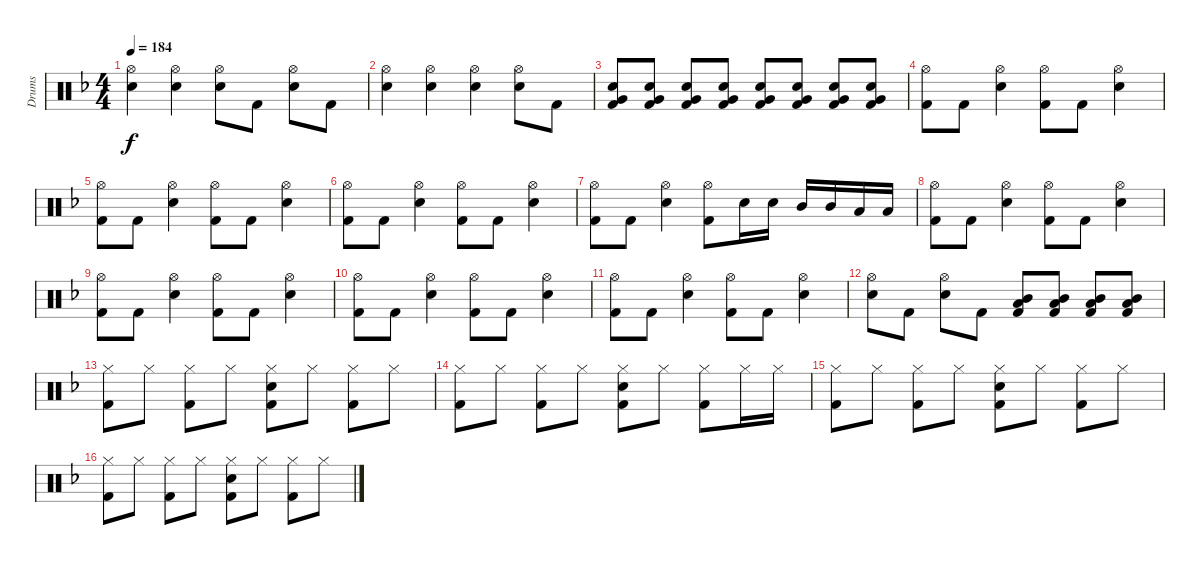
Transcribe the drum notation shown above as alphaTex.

\track ("Drums" "Drums") {instrument percussion}
\staff {score}
\articulation defaults
\ts (4 4)
\tempo 184
\clef neutral
\ks f
("Hi-Hat (open)" "Electric Snare (hit)").4{dy f} ("Hi-Hat (open)" "Electric Snare (hit)").4 ("Hi-Hat (open)" "Electric Snare (hit)").8 "Kick (hit) 2".8 ("Hi-Hat (open)" "Electric Snare (hit)").8 "Kick (hit) 2".8 |
("Hi-Hat (open)" "Electric Snare (hit)").4 ("Hi-Hat (open)" "Electric Snare (hit)").4 ("Hi-Hat (open)" "Electric Snare (hit)").4 ("Hi-Hat (open)" "Electric Snare (hit)").8 "Kick (hit) 2".8 |
("Electric Snare (hit)" "Very Low Tom (hit)" "Kick (hit) 2").8 ("Electric Snare (hit)" "Very Low Tom (hit)" "Kick (hit) 2").8 ("Electric Snare (hit)" "Very Low Tom (hit)" "Kick (hit) 2").8 ("Electric Snare (hit)" "Very Low Tom (hit)" "Kick (hit) 2").8 ("Electric Snare (hit)" "Very Low Tom (hit)" "Kick (hit) 2").8 ("Electric Snare (hit)" "Very Low Tom (hit)" "Kick (hit) 2").8 ("Electric Snare (hit)" "Very Low Tom (hit)" "Kick (hit) 2").8 ("Electric Snare (hit)" "Very Low Tom (hit)" "Kick (hit) 2").8 |
("Hi-Hat (open)" "Kick (hit) 2").8 "Kick (hit) 2".8 ("Hi-Hat (open)" "Electric Snare (hit)").4 ("Hi-Hat (open)" "Kick (hit) 2").8 "Kick (hit) 2".8 ("Hi-Hat (open)" "Electric Snare (hit)").4 |
("Hi-Hat (open)" "Kick (hit) 2").8 "Kick (hit) 2".8 ("Hi-Hat (open)" "Electric Snare (hit)").4 ("Hi-Hat (open)" "Kick (hit) 2").8 "Kick (hit) 2".8 ("Hi-Hat (open)" "Electric Snare (hit)").4 |
("Hi-Hat (open)" "Kick (hit) 2").8 "Kick (hit) 2".8 ("Hi-Hat (open)" "Electric Snare (hit)").4 ("Hi-Hat (open)" "Kick (hit) 2").8 "Kick (hit) 2".8 ("Hi-Hat (open)" "Electric Snare (hit)").4 |
("Hi-Hat (open)" "Kick (hit) 2").8 "Kick (hit) 2".8 ("Hi-Hat (open)" "Electric Snare (hit)").4 ("Hi-Hat (open)" "Kick (hit) 2").8 "Electric Snare (hit)".16 "Electric Snare (hit)".16 "Mid Tom (hit)".16 "Mid Tom (hit)".16 "Low Tom (hit)".16 "Low Tom (hit)".16 |
("Hi-Hat (open)" "Kick (hit) 2").8 "Kick (hit) 2".8 ("Hi-Hat (open)" "Electric Snare (hit)").4 ("Hi-Hat (open)" "Kick (hit) 2").8 "Kick (hit) 2".8 ("Hi-Hat (open)" "Electric Snare (hit)").4 |
("Hi-Hat (open)" "Kick (hit) 2").8 "Kick (hit) 2".8 ("Hi-Hat (open)" "Electric Snare (hit)").4 ("Hi-Hat (open)" "Kick (hit) 2").8 "Kick (hit) 2".8 ("Hi-Hat (open)" "Electric Snare (hit)").4 |
("Hi-Hat (open)" "Kick (hit) 2").8 "Kick (hit) 2".8 ("Hi-Hat (open)" "Electric Snare (hit)").4 ("Hi-Hat (open)" "Kick (hit) 2").8 "Kick (hit) 2".8 ("Hi-Hat (open)" "Electric Snare (hit)").4 |
("Hi-Hat (open)" "Kick (hit) 2").8 "Kick (hit) 2".8 ("Hi-Hat (open)" "Electric Snare (hit)").4 ("Hi-Hat (open)" "Kick (hit) 2").8 "Kick (hit) 2".8 ("Hi-Hat (open)" "Electric Snare (hit)").4 |
("Hi-Hat (open)" "Electric Snare (hit)").8 "Kick (hit) 2".8 ("Hi-Hat (open)" "Electric Snare (hit)").8 "Kick (hit) 2".8 ("Mid Tom (hit)" "Low Tom (hit)" "Kick (hit) 2").8 ("Mid Tom (hit)" "Low Tom (hit)" "Kick (hit) 2").8 ("Mid Tom (hit)" "Low Tom (hit)" "Kick (hit) 2").8 ("Mid Tom (hit)" "Low Tom (hit)" "Kick (hit) 2").8 |
("Hi-Hat (closed)" "Kick (hit) 2").8 "Hi-Hat (closed)".8 ("Hi-Hat (closed)" "Kick (hit) 2").8 "Hi-Hat (closed)".8 ("Hi-Hat (closed)" "Electric Snare (hit)" "Kick (hit) 2").8 "Hi-Hat (closed)".8 ("Hi-Hat (closed)" "Kick (hit) 2").8 "Hi-Hat (closed)".8 |
("Hi-Hat (closed)" "Kick (hit) 2").8 "Hi-Hat (closed)".8 ("Hi-Hat (closed)" "Kick (hit) 2").8 "Hi-Hat (closed)".8 ("Hi-Hat (closed)" "Electric Snare (hit)" "Kick (hit) 2").8 "Hi-Hat (closed)".8 ("Hi-Hat (closed)" "Kick (hit) 2").8 "Hi-Hat (closed)".16 "Hi-Hat (closed)".16 |
("Hi-Hat (closed)" "Kick (hit) 2").8 "Hi-Hat (closed)".8 ("Hi-Hat (closed)" "Kick (hit) 2").8 "Hi-Hat (closed)".8 ("Hi-Hat (closed)" "Electric Snare (hit)" "Kick (hit) 2").8 "Hi-Hat (closed)".8 ("Hi-Hat (closed)" "Kick (hit) 2").8 "Hi-Hat (closed)".8 |
("Hi-Hat (closed)" "Kick (hit) 2").8 "Hi-Hat (closed)".8 ("Hi-Hat (closed)" "Kick (hit) 2").8 "Hi-Hat (closed)".8 ("Hi-Hat (closed)" "Electric Snare (hit)" "Kick (hit) 2").8 "Hi-Hat (closed)".8 ("Hi-Hat (closed)" "Kick (hit) 2").8 "Hi-Hat (closed)".8
